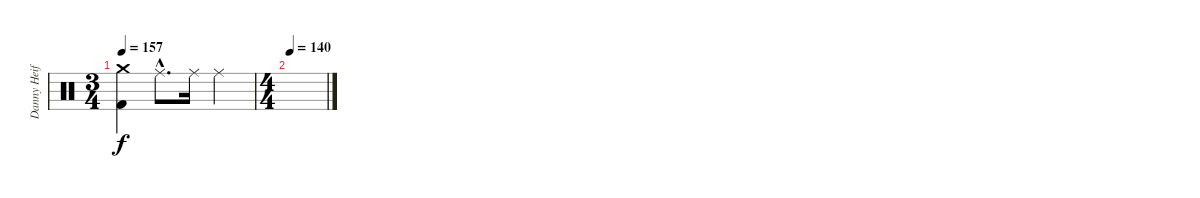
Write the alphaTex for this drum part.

\track ("Danny Heifetz - Drums" "Danny Heif") {instrument percussion}
\staff {score}
\articulation defaults
\ts (3 4)
\tempo 157
\clef neutral
\ks c
("Crash medium (hit)" "Kick (hit) 2").4{dy f} "Ride (middle)"{hac}.8{d} "Ride (middle)".16 "Ride (middle)".4 |
\ts (4 4)
\tempo 140
